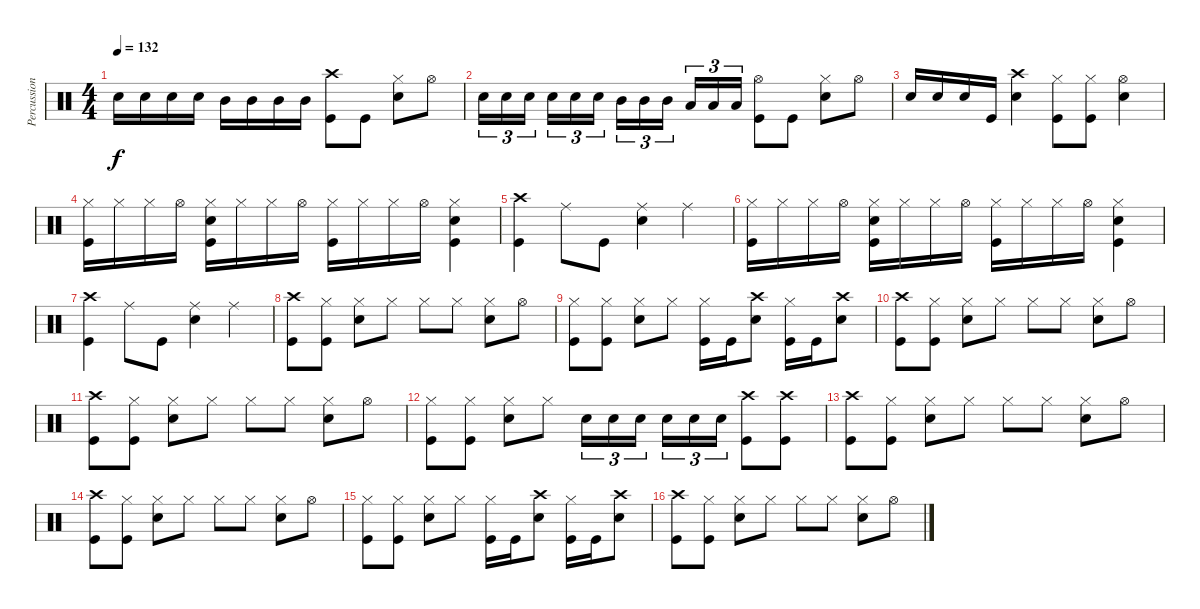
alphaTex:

\track ("Percussion" "Percussion") {instrument percussion}
\staff {score}
\articulation defaults
\ts (4 4)
\tempo 132
\clef neutral
\ks c "Electric Snare (hit)".16{dy f} "Electric Snare (hit)".16 "Electric Snare (hit)".16 "Electric Snare (hit)".16 "Mid Tom (hit)".16 "Mid Tom (hit)".16 "Mid Tom (hit)".16 "Mid Tom (hit)".16
("Crash high (hit)" "Kick (hit)").8 "Kick (hit)".8 ("Hi-Hat (closed)" "Electric Snare (hit)").8 "Hi-Hat (open)".8 |
"Electric Snare (hit)".16{tu (3 2)} "Electric Snare (hit)".16{tu (3 2)} "Electric Snare (hit)".16{tu (3 2)} "Electric Snare (hit)".16{tu (3 2)} "Electric Snare (hit)".16{tu (3 2)} "Electric Snare (hit)".16{tu (3 2)} "Mid Tom (hit)".16{tu (3 2)} "Mid Tom (hit)".16{tu (3 2)} "Mid Tom (hit)".16{tu (3 2)} "Low Tom (hit)".16{tu (3 2)} "Low Tom (hit)".16{tu (3 2)} "Low Tom (hit)".16{tu (3 2)} ("Hi-Hat (open)" "Kick (hit)").8 "Kick (hit)".8 ("Hi-Hat (closed)" "Electric Snare (hit)").8 "Hi-Hat (open)".8 |
"Electric Snare (hit)".16 "Electric Snare (hit)".16 "Electric Snare (hit)".16 "Kick (hit)".16 ("Crash high (hit)" "Electric Snare (hit)").4 ("Hi-Hat (closed)" "Kick (hit)").8 ("Hi-Hat (closed)" "Kick (hit)").8 ("Hi-Hat (open)" "Electric Snare (hit)").4 |
("Hi-Hat (closed)" "Kick (hit)").16 "Hi-Hat (closed)".16 "Hi-Hat (closed)".16 "Hi-Hat (open)".16 ("Hi-Hat (closed)" "Electric Snare (hit)" "Kick (hit)").16 "Hi-Hat (closed)".16 "Hi-Hat (closed)".16 "Hi-Hat (open)".16 ("Hi-Hat (closed)" "Kick (hit)").16 "Hi-Hat (closed)".16 "Hi-Hat (closed)".16 "Hi-Hat (open)".16 ("Hi-Hat (closed)" "Electric Snare (hit)" "Kick (hit)").4 |
("Crash high (hit)" "Kick (hit)").4 "Ride (middle)".8 "Kick (hit)".8 ("Ride (middle)" "Electric Snare (hit)").4 "Ride (middle)".4 |
("Hi-Hat (closed)" "Kick (hit)").16 "Hi-Hat (closed)".16 "Hi-Hat (closed)".16 "Hi-Hat (open)".16 ("Hi-Hat (closed)" "Electric Snare (hit)" "Kick (hit)").16 "Hi-Hat (closed)".16 "Hi-Hat (closed)".16 "Hi-Hat (open)".16 ("Hi-Hat (closed)" "Kick (hit)").16 "Hi-Hat (closed)".16 "Hi-Hat (closed)".16 "Hi-Hat (open)".16 ("Hi-Hat (closed)" "Electric Snare (hit)" "Kick (hit)").4 |
("Crash high (hit)" "Kick (hit)").4 "Ride (middle)".8 "Kick (hit)".8 ("Ride (middle)" "Electric Snare (hit)").4 "Ride (middle)".4 |
("Crash high (hit)" "Kick (hit)").8 ("Hi-Hat (closed)" "Kick (hit)").8 ("Hi-Hat (closed)" "Electric Snare (hit)").8 "Hi-Hat (closed)".8 "Hi-Hat (closed)".8 "Hi-Hat (closed)".8 ("Hi-Hat (closed)" "Electric Snare (hit)").8 "Hi-Hat (open)".8 |
("Hi-Hat (closed)" "Kick (hit)").8 ("Hi-Hat (closed)" "Kick (hit)").8 ("Hi-Hat (closed)" "Electric Snare (hit)").8 "Hi-Hat (closed)".8 ("Hi-Hat (closed)" "Kick (hit)").16 "Kick (hit)".16 ("Crash high (hit)" "Electric Snare (hit)").8 ("Hi-Hat (closed)" "Kick (hit)").16 "Kick (hit)".16 ("Crash high (hit)" "Electric Snare (hit)").8 |
("Crash high (hit)" "Kick (hit)").8 ("Hi-Hat (closed)" "Kick (hit)").8 ("Hi-Hat (closed)" "Electric Snare (hit)").8 "Hi-Hat (closed)".8 "Hi-Hat (closed)".8 "Hi-Hat (closed)".8 ("Hi-Hat (closed)" "Electric Snare (hit)").8 "Hi-Hat (open)".8 |
("Crash high (hit)" "Kick (hit)").8 ("Hi-Hat (closed)" "Kick (hit)").8 ("Hi-Hat (closed)" "Electric Snare (hit)").8 "Hi-Hat (closed)".8 "Hi-Hat (closed)".8 "Hi-Hat (closed)".8 ("Hi-Hat (closed)" "Electric Snare (hit)").8 "Hi-Hat (open)".8 |
("Hi-Hat (closed)" "Kick (hit)").8 ("Hi-Hat (closed)" "Kick (hit)").8 ("Hi-Hat (closed)" "Electric Snare (hit)").8 "Hi-Hat (closed)".8 "Electric Snare (hit)".16{tu (3 2)} "Electric Snare (hit)".16{tu (3 2)} "Electric Snare (hit)".16{tu (3 2)} "Electric Snare (hit)".16{tu (3 2)} "Electric Snare (hit)".16{tu (3 2)} "Electric Snare (hit)".16{tu (3 2)} ("Crash high (hit)" "Kick (hit)").8 ("Crash high (hit)" "Kick (hit)").8 |
("Crash high (hit)" "Kick (hit)").8 ("Hi-Hat (closed)" "Kick (hit)").8 ("Hi-Hat (closed)" "Electric Snare (hit)").8 "Hi-Hat (closed)".8 "Hi-Hat (closed)".8 "Hi-Hat (closed)".8 ("Hi-Hat (closed)" "Electric Snare (hit)").8 "Hi-Hat (open)".8 |
("Crash high (hit)" "Kick (hit)").8 ("Hi-Hat (closed)" "Kick (hit)").8 ("Hi-Hat (closed)" "Electric Snare (hit)").8 "Hi-Hat (closed)".8 "Hi-Hat (closed)".8 "Hi-Hat (closed)".8 ("Hi-Hat (closed)" "Electric Snare (hit)").8 "Hi-Hat (open)".8 |
("Hi-Hat (closed)" "Kick (hit)").8 ("Hi-Hat (closed)" "Kick (hit)").8 ("Hi-Hat (closed)" "Electric Snare (hit)").8 "Hi-Hat (closed)".8 ("Hi-Hat (closed)" "Kick (hit)").16 "Kick (hit)".16 ("Crash high (hit)" "Electric Snare (hit)").8 ("Hi-Hat (closed)" "Kick (hit)").16 "Kick (hit)".16 ("Crash high (hit)" "Electric Snare (hit)").8 |
("Crash high (hit)" "Kick (hit)").8 ("Hi-Hat (closed)" "Kick (hit)").8 ("Hi-Hat (closed)" "Electric Snare (hit)").8 "Hi-Hat (closed)".8 "Hi-Hat (closed)".8 "Hi-Hat (closed)".8 ("Hi-Hat (closed)" "Electric Snare (hit)").8 "Hi-Hat (open)".8
